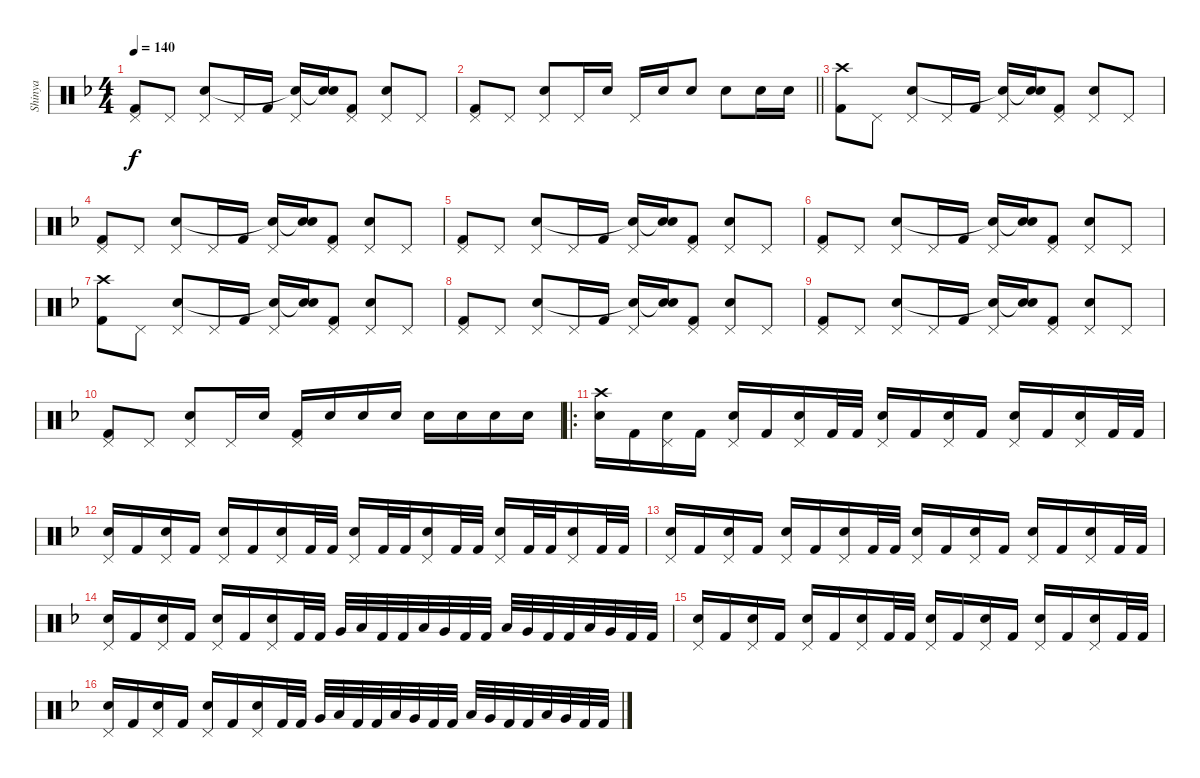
\track ("Shinya" "Shinya") {instrument percussion}
\staff {score}
\articulation defaults
\ts (4 4)
\tempo 140
\clef neutral
\ks dminor
("Pedal Hi-Hat (hit)" "Kick (hit) 2").8{dy f} "Pedal Hi-Hat (hit)".8 ("Pedal Hi-Hat (hit)" "Electric Snare (hit)").8 "Pedal Hi-Hat (hit)".16 "Kick (hit) 2".16 ("Pedal Hi-Hat (hit)" "Snare (hit)"{t}).16 ("Electric Snare (hit)" "Snare (hit)"{t}).16 ("Pedal Hi-Hat (hit)" "Kick (hit) 2").8 ("Pedal Hi-Hat (hit)" "Electric Snare (hit)").8 "Pedal Hi-Hat (hit)".8 |
\barLineRight lightlight
("Pedal Hi-Hat (hit)" "Kick (hit) 2").8 "Pedal Hi-Hat (hit)".8 ("Pedal Hi-Hat (hit)" "Electric Snare (hit)").8 "Pedal Hi-Hat (hit)".16 "Electric Snare (hit)".16 "Pedal Hi-Hat (hit)".16 "Electric Snare (hit)".16 "Electric Snare (hit)".8 "Electric Snare (hit)".8 "Electric Snare (hit)".16 "Electric Snare (hit)".16 |
("Crash high (hit)" "Kick (hit) 2").8 "Pedal Hi-Hat (hit)".8 ("Pedal Hi-Hat (hit)" "Electric Snare (hit)").8 "Pedal Hi-Hat (hit)".16 "Kick (hit) 2".16 ("Pedal Hi-Hat (hit)" "Snare (hit)"{t}).16 ("Electric Snare (hit)" "Snare (hit)"{t}).16 ("Pedal Hi-Hat (hit)" "Kick (hit) 2").8 ("Pedal Hi-Hat (hit)" "Electric Snare (hit)").8 "Pedal Hi-Hat (hit)".8 |
("Pedal Hi-Hat (hit)" "Kick (hit) 2").8 "Pedal Hi-Hat (hit)".8 ("Pedal Hi-Hat (hit)" "Electric Snare (hit)").8 "Pedal Hi-Hat (hit)".16 "Kick (hit) 2".16 ("Pedal Hi-Hat (hit)" "Snare (hit)"{t}).16 ("Electric Snare (hit)" "Snare (hit)"{t}).16 ("Pedal Hi-Hat (hit)" "Kick (hit) 2").8 ("Pedal Hi-Hat (hit)" "Electric Snare (hit)").8 "Pedal Hi-Hat (hit)".8 |
("Pedal Hi-Hat (hit)" "Kick (hit) 2").8 "Pedal Hi-Hat (hit)".8 ("Pedal Hi-Hat (hit)" "Electric Snare (hit)").8 "Pedal Hi-Hat (hit)".16 "Kick (hit) 2".16 ("Pedal Hi-Hat (hit)" "Snare (hit)"{t}).16 ("Electric Snare (hit)" "Snare (hit)"{t}).16 ("Pedal Hi-Hat (hit)" "Kick (hit) 2").8 ("Pedal Hi-Hat (hit)" "Electric Snare (hit)").8 "Pedal Hi-Hat (hit)".8 |
("Pedal Hi-Hat (hit)" "Kick (hit) 2").8 "Pedal Hi-Hat (hit)".8 ("Pedal Hi-Hat (hit)" "Electric Snare (hit)").8 "Pedal Hi-Hat (hit)".16 "Kick (hit) 2".16 ("Pedal Hi-Hat (hit)" "Snare (hit)"{t}).16 ("Electric Snare (hit)" "Snare (hit)"{t}).16 ("Pedal Hi-Hat (hit)" "Kick (hit) 2").8 ("Pedal Hi-Hat (hit)" "Electric Snare (hit)").8 "Pedal Hi-Hat (hit)".8 |
("Crash high (hit)" "Kick (hit) 2").8 "Pedal Hi-Hat (hit)".8 ("Pedal Hi-Hat (hit)" "Electric Snare (hit)").8 "Pedal Hi-Hat (hit)".16 "Kick (hit) 2".16 ("Pedal Hi-Hat (hit)" "Snare (hit)"{t}).16 ("Electric Snare (hit)" "Snare (hit)"{t}).16 ("Pedal Hi-Hat (hit)" "Kick (hit) 2").8 ("Pedal Hi-Hat (hit)" "Electric Snare (hit)").8 "Pedal Hi-Hat (hit)".8 |
("Pedal Hi-Hat (hit)" "Kick (hit) 2").8 "Pedal Hi-Hat (hit)".8 ("Pedal Hi-Hat (hit)" "Electric Snare (hit)").8 "Pedal Hi-Hat (hit)".16 "Kick (hit) 2".16 ("Pedal Hi-Hat (hit)" "Snare (hit)"{t}).16 ("Electric Snare (hit)" "Snare (hit)"{t}).16 ("Pedal Hi-Hat (hit)" "Kick (hit) 2").8 ("Pedal Hi-Hat (hit)" "Electric Snare (hit)").8 "Pedal Hi-Hat (hit)".8 |
("Pedal Hi-Hat (hit)" "Kick (hit) 2").8 "Pedal Hi-Hat (hit)".8 ("Pedal Hi-Hat (hit)" "Electric Snare (hit)").8 "Pedal Hi-Hat (hit)".16 "Kick (hit) 2".16 ("Pedal Hi-Hat (hit)" "Snare (hit)"{t}).16 ("Electric Snare (hit)" "Snare (hit)"{t}).16 ("Pedal Hi-Hat (hit)" "Kick (hit) 2").8 ("Pedal Hi-Hat (hit)" "Electric Snare (hit)").8 "Pedal Hi-Hat (hit)".8 |
("Pedal Hi-Hat (hit)" "Kick (hit) 2").8 "Pedal Hi-Hat (hit)".8 ("Pedal Hi-Hat (hit)" "Electric Snare (hit)").8 "Pedal Hi-Hat (hit)".16 "Electric Snare (hit)".16 ("Pedal Hi-Hat (hit)" "Kick (hit) 2").16 "Electric Snare (hit)".16 "Electric Snare (hit)".16 "Electric Snare (hit)".16 "Electric Snare (hit)".16 "Electric Snare (hit)".16 "Electric Snare (hit)".16 "Electric Snare (hit)".16 |
\ro
("Crash high (hit)" "Electric Snare (hit)").16 "Kick (hit) 2".16 ("Pedal Hi-Hat (hit)" "Electric Snare (hit)").16 "Kick (hit) 2".16 ("Pedal Hi-Hat (hit)" "Electric Snare (hit)").16 "Kick (hit) 2".16 ("Pedal Hi-Hat (hit)" "Electric Snare (hit)").16 "Kick (hit) 2".32 "Kick (hit) 2".32 ("Pedal Hi-Hat (hit)" "Electric Snare (hit)").16 "Kick (hit) 2".16 ("Pedal Hi-Hat (hit)" "Electric Snare (hit)").16 "Kick (hit) 2".16 ("Pedal Hi-Hat (hit)" "Electric Snare (hit)").16 "Kick (hit) 2".16 ("Pedal Hi-Hat (hit)" "Electric Snare (hit)").16 "Kick (hit) 2".32 "Kick (hit) 2".32 |
("Pedal Hi-Hat (hit)" "Electric Snare (hit)").16 "Kick (hit) 2".16 ("Pedal Hi-Hat (hit)" "Electric Snare (hit)").16 "Kick (hit) 2".16 ("Pedal Hi-Hat (hit)" "Electric Snare (hit)").16 "Kick (hit) 2".16 ("Pedal Hi-Hat (hit)" "Electric Snare (hit)").16 "Kick (hit) 2".32 "Kick (hit) 2".32 ("Pedal Hi-Hat (hit)" "Electric Snare (hit)").16 "Kick (hit) 2".32 "Kick (hit) 2".32 ("Pedal Hi-Hat (hit)" "Electric Snare (hit)").16 "Kick (hit) 2".32 "Kick (hit) 2".32 ("Pedal Hi-Hat (hit)" "Electric Snare (hit)").16 "Kick (hit) 2".32 "Kick (hit) 2".32 ("Pedal Hi-Hat (hit)" "Electric Snare (hit)").16 "Kick (hit) 2".32 "Kick (hit) 2".32 |
("Pedal Hi-Hat (hit)" "Electric Snare (hit)").16 "Kick (hit) 2".16 ("Pedal Hi-Hat (hit)" "Electric Snare (hit)").16 "Kick (hit) 2".16 ("Pedal Hi-Hat (hit)" "Electric Snare (hit)").16 "Kick (hit) 2".16 ("Pedal Hi-Hat (hit)" "Electric Snare (hit)").16 "Kick (hit) 2".32 "Kick (hit) 2".32 ("Pedal Hi-Hat (hit)" "Electric Snare (hit)").16 "Kick (hit) 2".16 ("Pedal Hi-Hat (hit)" "Electric Snare (hit)").16 "Kick (hit) 2".16 ("Pedal Hi-Hat (hit)" "Electric Snare (hit)").16 "Kick (hit) 2".16 ("Pedal Hi-Hat (hit)" "Electric Snare (hit)").16 "Kick (hit) 2".32 "Kick (hit) 2".32 |
("Pedal Hi-Hat (hit)" "Electric Snare (hit)").16 "Kick (hit) 2".16 ("Pedal Hi-Hat (hit)" "Electric Snare (hit)").16 "Kick (hit) 2".16 ("Pedal Hi-Hat (hit)" "Electric Snare (hit)").16 "Kick (hit) 2".16 ("Pedal Hi-Hat (hit)" "Electric Snare (hit)").16 "Kick (hit) 2".32 "Kick (hit) 2".32 "Very Low Tom (hit)".32 "Low Tom (hit)".32 "Kick (hit) 2".32 "Kick (hit) 2".32 "Low Floor Tom (hit)".32 "Very Low Tom (hit)".32 "Kick (hit) 2".32 "Kick (hit) 2".32 "Low Floor Tom (hit)".32 "Very Low Tom (hit)".32 "Kick (hit) 2".32 "Kick (hit) 2".32 "Low Floor Tom (hit)".32 "Very Low Tom (hit)".32 "Kick (hit) 2".32 "Kick (hit) 2".32 |
("Pedal Hi-Hat (hit)" "Electric Snare (hit)").16 "Kick (hit) 2".16 ("Pedal Hi-Hat (hit)" "Electric Snare (hit)").16 "Kick (hit) 2".16 ("Pedal Hi-Hat (hit)" "Electric Snare (hit)").16 "Kick (hit) 2".16 ("Pedal Hi-Hat (hit)" "Electric Snare (hit)").16 "Kick (hit) 2".32 "Kick (hit) 2".32 ("Pedal Hi-Hat (hit)" "Electric Snare (hit)").16 "Kick (hit) 2".16 ("Pedal Hi-Hat (hit)" "Electric Snare (hit)").16 "Kick (hit) 2".16 ("Pedal Hi-Hat (hit)" "Electric Snare (hit)").16 "Kick (hit) 2".16 ("Pedal Hi-Hat (hit)" "Electric Snare (hit)").16 "Kick (hit) 2".32 "Kick (hit) 2".32 |
("Pedal Hi-Hat (hit)" "Electric Snare (hit)").16 "Kick (hit) 2".16 ("Pedal Hi-Hat (hit)" "Electric Snare (hit)").16 "Kick (hit) 2".16 ("Pedal Hi-Hat (hit)" "Electric Snare (hit)").16 "Kick (hit) 2".16 ("Pedal Hi-Hat (hit)" "Electric Snare (hit)").16 "Kick (hit) 2".32 "Kick (hit) 2".32 "Very Low Tom (hit)".32 "Low Tom (hit)".32 "Kick (hit) 2".32 "Kick (hit) 2".32 "Low Floor Tom (hit)".32 "Very Low Tom (hit)".32 "Kick (hit) 2".32 "Kick (hit) 2".32 "Low Floor Tom (hit)".32 "Very Low Tom (hit)".32 "Kick (hit) 2".32 "Kick (hit) 2".32 "Low Floor Tom (hit)".32 "Very Low Tom (hit)".32 "Kick (hit) 2".32 "Kick (hit) 2".32
